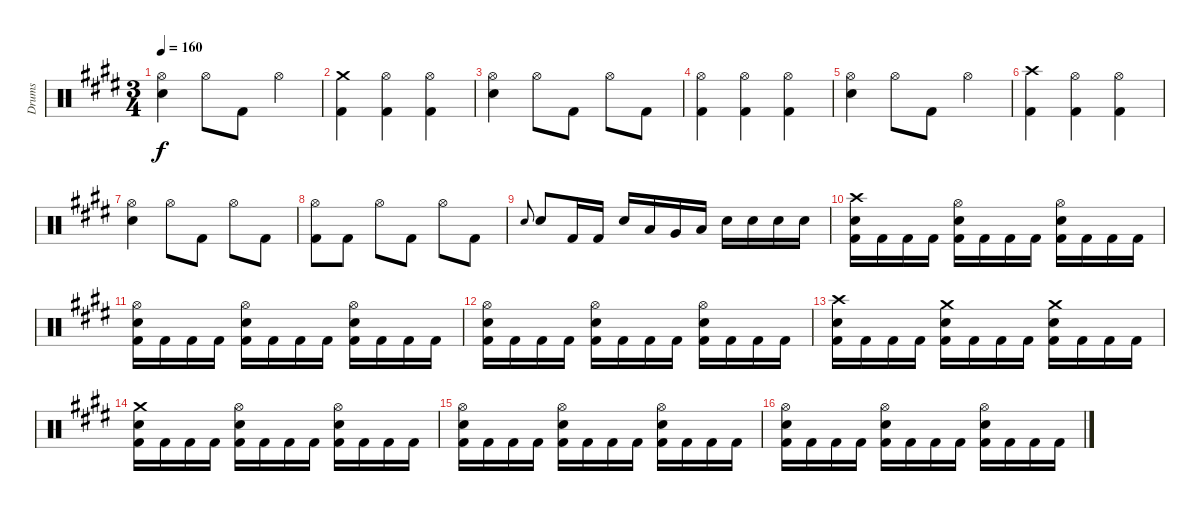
\track ("Drums" "Drums") {instrument percussion}
\staff {score}
\articulation defaults
\ts (3 4)
\tempo 160
\clef neutral
\ks c#minor
("Hi-Hat (open)" "Snare (hit) 2").4{dy f} "Hi-Hat (open)".8 "Kick (hit) 2".8 "Hi-Hat (open)".4 |
("Crash medium (hit)" "Kick (hit) 2").4 ("Hi-Hat (open)" "Kick (hit) 2").4 ("Hi-Hat (open)" "Kick (hit) 2").4 |
("Hi-Hat (open)" "Snare (hit) 2").4 "Hi-Hat (open)".8 "Kick (hit) 2".8 "Hi-Hat (open)".8 "Kick (hit) 2".8 |
("Hi-Hat (open)" "Kick (hit) 2").4 ("Hi-Hat (open)" "Kick (hit) 2").4 ("Hi-Hat (open)" "Kick (hit) 2").4 |
("Hi-Hat (open)" "Snare (hit) 2").4 "Hi-Hat (open)".8 "Kick (hit) 2".8 "Hi-Hat (open)".4 |
("Crash high (hit)" "Kick (hit) 2").4 ("Hi-Hat (open)" "Kick (hit) 2").4 ("Hi-Hat (open)" "Kick (hit) 2").4 |
("Hi-Hat (open)" "Snare (hit) 2").4 "Hi-Hat (open)".8 "Kick (hit) 2".8 "Hi-Hat (open)".8 "Kick (hit) 2".8 |
("Hi-Hat (open)" "Kick (hit) 2").8 "Kick (hit) 2".8 "Hi-Hat (open)".8 "Kick (hit) 2".8 "Hi-Hat (open)".8 "Kick (hit) 2".8 |
"Snare (hit) 2".8{gr onbeat} "Snare (hit) 2".8 "Kick (hit) 2".16 "Kick (hit) 2".16 "Snare (hit) 2".16 "Low Tom (hit)".16 "Very Low Tom (hit)".16 "Low Floor Tom (hit)".16 "Snare (hit) 2".16 "Snare (hit) 2".16 "Snare (hit) 2".16 "Snare (hit) 2".16 |
("Crash high (hit)" "Snare (hit) 2" "Kick (hit) 2").16 "Kick (hit) 2".16 "Kick (hit) 2".16 "Kick (hit) 2".16 ("Hi-Hat (open)" "Snare (hit) 2" "Kick (hit) 2").16 "Kick (hit) 2".16 "Kick (hit) 2".16 "Kick (hit) 2".16 ("Hi-Hat (open)" "Snare (hit) 2" "Kick (hit) 2").16 "Kick (hit) 2".16 "Kick (hit) 2".16 "Kick (hit) 2".16 |
("Hi-Hat (open)" "Snare (hit) 2" "Kick (hit) 2").16 "Kick (hit) 2".16 "Kick (hit) 2".16 "Kick (hit) 2".16 ("Hi-Hat (open)" "Snare (hit) 2" "Kick (hit) 2").16 "Kick (hit) 2".16 "Kick (hit) 2".16 "Kick (hit) 2".16 ("Hi-Hat (open)" "Snare (hit) 2" "Kick (hit) 2").16 "Kick (hit) 2".16 "Kick (hit) 2".16 "Kick (hit) 2".16 |
("Hi-Hat (open)" "Snare (hit) 2" "Kick (hit) 2").16 "Kick (hit) 2".16 "Kick (hit) 2".16 "Kick (hit) 2".16 ("Hi-Hat (open)" "Snare (hit) 2" "Kick (hit) 2").16 "Kick (hit) 2".16 "Kick (hit) 2".16 "Kick (hit) 2".16 ("Hi-Hat (open)" "Snare (hit) 2" "Kick (hit) 2").16 "Kick (hit) 2".16 "Kick (hit) 2".16 "Kick (hit) 2".16 |
("Crash high (hit)" "Snare (hit) 2" "Kick (hit) 2").16 "Kick (hit) 2".16 "Kick (hit) 2".16 "Kick (hit) 2".16 ("Crash medium (hit)" "Snare (hit) 2" "Kick (hit) 2").16 "Kick (hit) 2".16 "Kick (hit) 2".16 "Kick (hit) 2".16 ("Crash medium (hit)" "Snare (hit) 2" "Kick (hit) 2").16 "Kick (hit) 2".16 "Kick (hit) 2".16 "Kick (hit) 2".16 |
("Crash medium (hit)" "Snare (hit) 2" "Kick (hit) 2").16 "Kick (hit) 2".16 "Kick (hit) 2".16 "Kick (hit) 2".16 ("Hi-Hat (open)" "Snare (hit) 2" "Kick (hit) 2").16 "Kick (hit) 2".16 "Kick (hit) 2".16 "Kick (hit) 2".16 ("Hi-Hat (open)" "Snare (hit) 2" "Kick (hit) 2").16 "Kick (hit) 2".16 "Kick (hit) 2".16 "Kick (hit) 2".16 |
("Hi-Hat (open)" "Snare (hit) 2" "Kick (hit) 2").16 "Kick (hit) 2".16 "Kick (hit) 2".16 "Kick (hit) 2".16 ("Hi-Hat (open)" "Snare (hit) 2" "Kick (hit) 2").16 "Kick (hit) 2".16 "Kick (hit) 2".16 "Kick (hit) 2".16 ("Hi-Hat (open)" "Snare (hit) 2" "Kick (hit) 2").16 "Kick (hit) 2".16 "Kick (hit) 2".16 "Kick (hit) 2".16 |
("Hi-Hat (open)" "Snare (hit) 2" "Kick (hit) 2").16 "Kick (hit) 2".16 "Kick (hit) 2".16 "Kick (hit) 2".16 ("Hi-Hat (open)" "Snare (hit) 2" "Kick (hit) 2").16 "Kick (hit) 2".16 "Kick (hit) 2".16 "Kick (hit) 2".16 ("Hi-Hat (open)" "Snare (hit) 2" "Kick (hit) 2").16 "Kick (hit) 2".16 "Kick (hit) 2".16 "Kick (hit) 2".16
